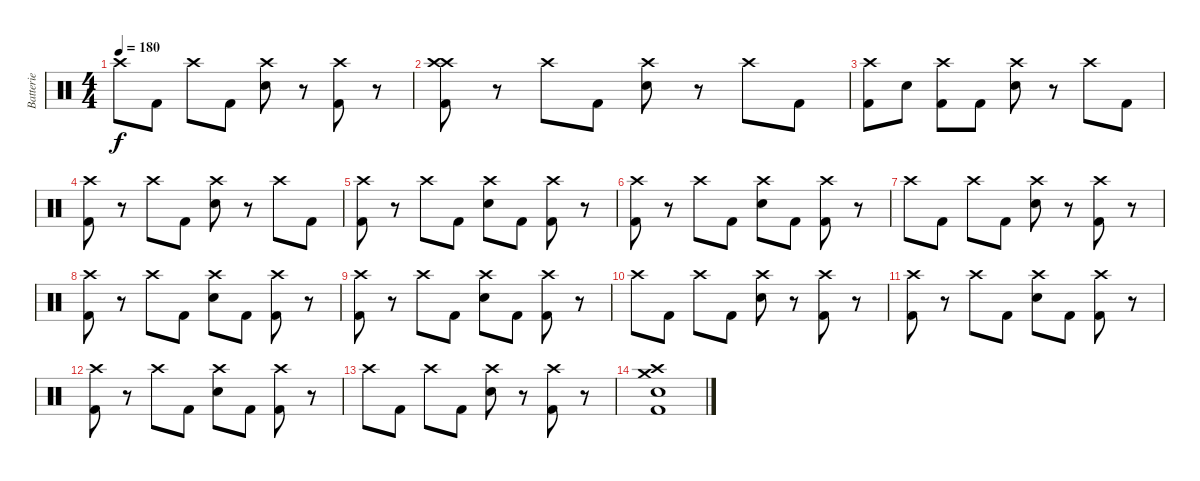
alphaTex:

\track ("Batterie" "Batterie") {instrument percussion}
\staff {score}
\articulation defaults
\ts (4 4)
\tempo 180
\clef neutral
\ks c "Crash high (hit)".8{dy f} "Kick (hit) 2".8 "Crash high (hit)".8 "Kick (hit) 2".8
("Crash high (hit)" "Snare (hit) 2").8 r.8 ("Crash high (hit)" "Kick (hit) 2").8 r.8 |
("Crash high (hit)" "Crash high (hit)" "Kick (hit) 2").8 r.8 "Crash high (hit)".8 "Kick (hit) 2".8 ("Crash high (hit)" "Snare (hit) 2").8 r.8 "Crash high (hit)".8 "Kick (hit) 2".8 |
("Crash high (hit)" "Kick (hit) 2").8 "Snare (hit) 2".8 ("Crash high (hit)" "Kick (hit) 2").8 "Kick (hit) 2".8 ("Crash high (hit)" "Snare (hit) 2").8 r.8 "Crash high (hit)".8 "Kick (hit) 2".8 |
("Crash high (hit)" "Kick (hit) 2").8 r.8 "Crash high (hit)".8 "Kick (hit) 2".8 ("Crash high (hit)" "Snare (hit) 2").8 r.8 "Crash high (hit)".8 "Kick (hit) 2".8 |
("Crash high (hit)" "Kick (hit) 2").8 r.8 "Crash high (hit)".8 "Kick (hit) 2".8 ("Crash high (hit)" "Snare (hit) 2").8 "Kick (hit) 2".8 ("Crash high (hit)" "Kick (hit) 2").8 r.8 |
("Crash high (hit)" "Kick (hit) 2").8 r.8 "Crash high (hit)".8 "Kick (hit) 2".8 ("Crash high (hit)" "Snare (hit) 2").8 "Kick (hit) 2".8 ("Crash high (hit)" "Kick (hit) 2").8 r.8 |
"Crash high (hit)".8 "Kick (hit) 2".8 "Crash high (hit)".8 "Kick (hit) 2".8 ("Crash high (hit)" "Snare (hit) 2").8 r.8 ("Crash high (hit)" "Kick (hit) 2").8 r.8 |
("Crash high (hit)" "Kick (hit) 2").8 r.8 "Crash high (hit)".8 "Kick (hit) 2".8 ("Crash high (hit)" "Snare (hit) 2").8 "Kick (hit) 2".8 ("Crash high (hit)" "Kick (hit) 2").8 r.8 |
("Crash high (hit)" "Kick (hit) 2").8 r.8 "Crash high (hit)".8 "Kick (hit) 2".8 ("Crash high (hit)" "Snare (hit) 2").8 "Kick (hit) 2".8 ("Crash high (hit)" "Kick (hit) 2").8 r.8 |
"Crash high (hit)".8 "Kick (hit) 2".8 "Crash high (hit)".8 "Kick (hit) 2".8 ("Crash high (hit)" "Snare (hit) 2").8 r.8 ("Crash high (hit)" "Kick (hit) 2").8 r.8 |
("Crash high (hit)" "Kick (hit) 2").8 r.8 "Crash high (hit)".8 "Kick (hit) 2".8 ("Crash high (hit)" "Snare (hit) 2").8 "Kick (hit) 2".8 ("Crash high (hit)" "Kick (hit) 2").8 r.8 |
("Crash high (hit)" "Kick (hit) 2").8 r.8 "Crash high (hit)".8 "Kick (hit) 2".8 ("Crash high (hit)" "Snare (hit) 2").8 "Kick (hit) 2".8 ("Crash high (hit)" "Kick (hit) 2").8 r.8 |
"Crash high (hit)".8 "Kick (hit) 2".8 "Crash high (hit)".8 "Kick (hit) 2".8 ("Crash high (hit)" "Snare (hit) 2").8 r.8 ("Crash high (hit)" "Kick (hit) 2").8 r.8 |
("Crash medium (hit)" "Snare (hit) 2" "Crash high (hit)" "Kick (hit) 2").1
